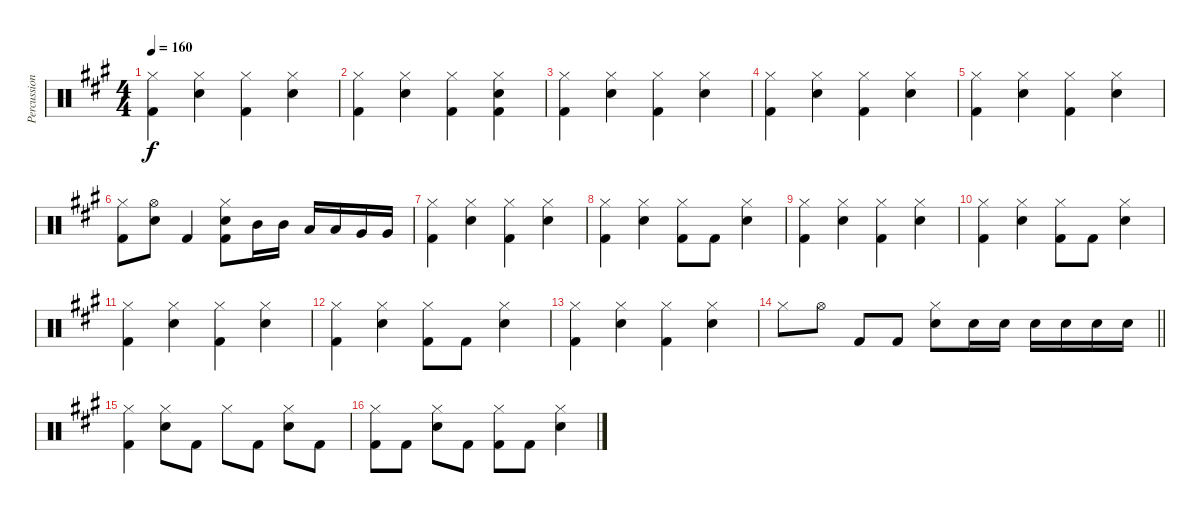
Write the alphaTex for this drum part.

\track ("Percussions" "Percussion") {instrument percussion}
\staff {score}
\articulation defaults
\ts (4 4)
\tempo 160
\clef neutral
\ks a
("Hi-Hat (closed)" "Kick (hit) 2").4{dy f} ("Hi-Hat (closed)" "Snare (hit) 2").4 ("Hi-Hat (closed)" "Kick (hit) 2").4 ("Hi-Hat (closed)" "Snare (hit) 2").4 |
("Hi-Hat (closed)" "Kick (hit) 2").4 ("Hi-Hat (closed)" "Snare (hit) 2").4 ("Hi-Hat (closed)" "Kick (hit) 2").4 ("Hi-Hat (closed)" "Snare (hit) 2" "Kick (hit) 2").4 |
("Hi-Hat (closed)" "Kick (hit) 2").4 ("Hi-Hat (closed)" "Snare (hit) 2").4 ("Hi-Hat (closed)" "Kick (hit) 2").4 ("Hi-Hat (closed)" "Snare (hit) 2").4 |
("Hi-Hat (closed)" "Kick (hit) 2").4 ("Hi-Hat (closed)" "Snare (hit) 2").4 ("Hi-Hat (closed)" "Kick (hit) 2").4 ("Hi-Hat (closed)" "Snare (hit) 2").4 |
("Hi-Hat (closed)" "Kick (hit) 2").4 ("Hi-Hat (closed)" "Snare (hit) 2").4 ("Hi-Hat (closed)" "Kick (hit) 2").4 ("Hi-Hat (closed)" "Snare (hit) 2").4 |
("Hi-Hat (closed)" "Kick (hit) 2").8 ("Hi-Hat (open)" "Snare (hit) 2").8 "Kick (hit) 2".4 ("Hi-Hat (closed)" "Snare (hit) 2" "Kick (hit) 2").8 "Mid Tom (hit)".16 "Mid Tom (hit)".16 "Low Tom (hit)".16 "Low Tom (hit)".16 "Very Low Tom (hit)".16 "Very Low Tom (hit)".16 |
("Hi-Hat (closed)" "Kick (hit) 2").4 ("Hi-Hat (closed)" "Snare (hit) 2").4 ("Hi-Hat (closed)" "Kick (hit) 2").4 ("Hi-Hat (closed)" "Snare (hit) 2").4 |
("Hi-Hat (closed)" "Kick (hit) 2").4 ("Hi-Hat (closed)" "Snare (hit) 2").4 ("Hi-Hat (closed)" "Kick (hit) 2").8 "Kick (hit) 2".8 ("Hi-Hat (closed)" "Snare (hit) 2").4 |
("Hi-Hat (closed)" "Kick (hit) 2").4 ("Hi-Hat (closed)" "Snare (hit) 2").4 ("Hi-Hat (closed)" "Kick (hit) 2").4 ("Hi-Hat (closed)" "Snare (hit) 2").4 |
("Hi-Hat (closed)" "Kick (hit) 2").4 ("Hi-Hat (closed)" "Snare (hit) 2").4 ("Hi-Hat (closed)" "Kick (hit) 2").8 "Kick (hit) 2".8 ("Hi-Hat (closed)" "Snare (hit) 2").4 |
("Hi-Hat (closed)" "Kick (hit) 2").4 ("Hi-Hat (closed)" "Snare (hit) 2").4 ("Hi-Hat (closed)" "Kick (hit) 2").4 ("Hi-Hat (closed)" "Snare (hit) 2").4 |
("Hi-Hat (closed)" "Kick (hit) 2").4 ("Hi-Hat (closed)" "Snare (hit) 2").4 ("Hi-Hat (closed)" "Kick (hit) 2").8 "Kick (hit) 2".8 ("Hi-Hat (closed)" "Snare (hit) 2").4 |
("Hi-Hat (closed)" "Kick (hit) 2").4 ("Hi-Hat (closed)" "Snare (hit) 2").4 ("Hi-Hat (closed)" "Kick (hit) 2").4 ("Hi-Hat (closed)" "Snare (hit) 2").4 |
\barLineRight lightlight "Hi-Hat (closed)".8 "Hi-Hat (open)".8 "Kick (hit) 2".8 "Kick (hit) 2".8
("Hi-Hat (closed)" "Snare (hit) 2").8 "Snare (hit) 2".16 "Snare (hit) 2".16 "Snare (hit) 2".16 "Snare (hit) 2".16 "Snare (hit) 2".16 "Snare (hit) 2".16 |
("Hi-Hat (closed)" "Kick (hit) 2").4 ("Hi-Hat (closed)" "Snare (hit) 2").8 "Kick (hit) 2".8 "Hi-Hat (closed)".8 "Kick (hit) 2".8 ("Hi-Hat (closed)" "Snare (hit) 2").8 "Kick (hit) 2".8 |
("Hi-Hat (closed)" "Kick (hit) 2").8 "Kick (hit) 2".8 ("Hi-Hat (closed)" "Snare (hit) 2").8 "Kick (hit) 2".8 ("Hi-Hat (closed)" "Kick (hit) 2").8 "Kick (hit) 2".8 ("Hi-Hat (closed)" "Snare (hit) 2").4
